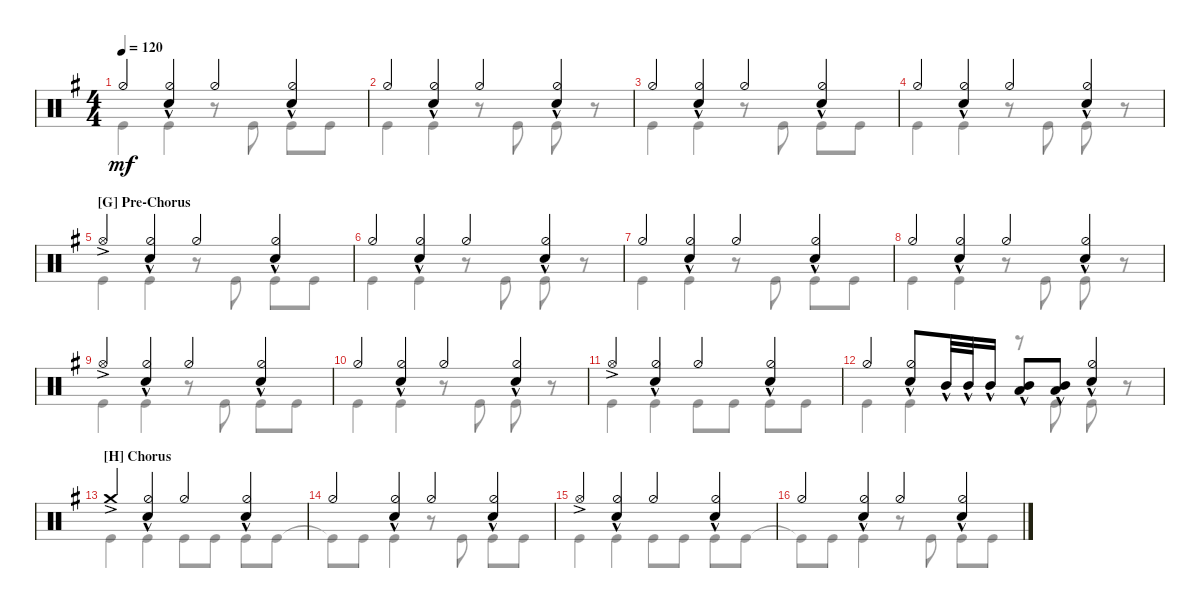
\defaultSystemsLayout 4
\bracketExtendMode groupsimilarinstruments
\singleTrackTrackNamePolicy hidden
\multiTrackTrackNamePolicy hidden
\firstSystemTrackNameOrientation horizontal
\otherSystemsTrackNameOrientation horizontal
\track ("Maksim Udalov" "Drums") {instrument percussion}
\staff {score}
\articulation defaults
\voice
\ts (4 4)
\tempo 120
\clef neutral
\scale
1.02648
\ks g "Hi-Hat (half)".4{dy mf}
("Snare (hit) 2"{hac} "Hi-Hat (half)").4 "Hi-Hat (half)".4 ("Snare (hit) 2"{hac} "Hi-Hat (half)").4 |
\scale
0.973518 "Hi-Hat (half)".4 ("Snare (hit) 2"{hac} "Hi-Hat (half)").4 "Hi-Hat (half)".4 ("Snare (hit) 2"{hac} "Hi-Hat (half)").4 |
\scale
1.02648 "Hi-Hat (half)".4 ("Snare (hit) 2"{hac} "Hi-Hat (half)").4 "Hi-Hat (half)".4 ("Snare (hit) 2"{hac} "Hi-Hat (half)").4 |
\scale
0.973518 "Hi-Hat (half)".4 ("Snare (hit) 2"{hac} "Hi-Hat (half)").4 "Hi-Hat (half)".4 ("Snare (hit) 2"{hac} "Hi-Hat (half)").4 |
\section ("G" "Pre-Chorus")
\scale
1.02648 "Hi-Hat (open)"{ac}.4 ("Snare (hit) 2"{hac} "Hi-Hat (half)").4 "Hi-Hat (half)".4 ("Snare (hit) 2"{hac} "Hi-Hat (half)").4 |
\scale
0.973518 "Hi-Hat (half)".4 ("Snare (hit) 2"{hac} "Hi-Hat (half)").4 "Hi-Hat (half)".4 ("Snare (hit) 2"{hac} "Hi-Hat (half)").4 |
\scale
1.02648 "Hi-Hat (half)".4 ("Snare (hit) 2"{hac} "Hi-Hat (half)").4 "Hi-Hat (half)".4 ("Snare (hit) 2"{hac} "Hi-Hat (half)").4 |
\scale
0.973518 "Hi-Hat (half)".4 ("Snare (hit) 2"{hac} "Hi-Hat (half)").4 "Hi-Hat (half)".4 ("Snare (hit) 2"{hac} "Hi-Hat (half)").4 |
\scale
1.02648 "Hi-Hat (open)"{ac}.4 ("Snare (hit) 2"{hac} "Hi-Hat (half)").4 "Hi-Hat (half)".4 ("Snare (hit) 2"{hac} "Hi-Hat (half)").4 |
\scale
0.973518 "Hi-Hat (half)".4 ("Snare (hit) 2"{hac} "Hi-Hat (half)").4 "Hi-Hat (half)".4 ("Snare (hit) 2"{hac} "Hi-Hat (half)").4 |
\scale
1.02648 "Hi-Hat (open)"{ac}.4 ("Snare (hit) 2"{hac} "Hi-Hat (half)").4 "Hi-Hat (half)".4 ("Snare (hit) 2"{hac} "Hi-Hat (half)").4 |
\scale
0.973518 "Hi-Hat (half)".4 ("Hi-Hat (half)" "Snare (hit) 2"{hac}).8 "Mid Tom (hit)"{hac}.32 "Mid Tom (hit)"{hac}.32 "Mid Tom (hit)"{hac}.16 ("Low Tom (hit)"{hac} "Mid Tom (hit)"{hac}).8 ("Low Tom (hit)"{hac} "Mid Tom (hit)"{hac}).8 ("Snare (hit) 2"{hac} "Hi-Hat (half)").4 |
\section ("H" "Chorus")
\scale
1.02648 "Crash medium (hit)"{ac}.4 ("Snare (hit) 2"{hac} "Hi-Hat (half)").4 "Hi-Hat (half)".4 ("Snare (hit) 2"{hac} "Hi-Hat (half)").4 |
\scale
0.973518 "Hi-Hat (half)".4 ("Hi-Hat (half)" "Snare (hit) 2"{hac}).4 "Hi-Hat (half)".4 ("Hi-Hat (half)" "Snare (hit) 2"{hac}).4 |
\scale
1.02648 "Hi-Hat (open)"{ac}.4 ("Snare (hit) 2"{hac} "Hi-Hat (half)").4 "Hi-Hat (half)".4 ("Snare (hit) 2"{hac} "Hi-Hat (half)").4 |
\scale
0.973518 "Hi-Hat (half)".4 ("Hi-Hat (half)" "Snare (hit) 2"{hac}).4 "Hi-Hat (half)".4 ("Hi-Hat (half)" "Snare (hit) 2"{hac}).4
\voice
\clef neutral
\ottava regular
\simile none
\scale
1.02648
\ks g "Kick (hit)".4{dy mf} "Kick (hit)".4
r.8 "Kick (hit)".8 "Kick (hit)".8 "Kick (hit)".8 |
\scale
0.973518 "Kick (hit)".4 "Kick (hit)".4 r.8 "Kick (hit)".8 "Kick (hit)".8 r.8 |
\scale
1.02648 "Kick (hit)".4 "Kick (hit)".4 r.8 "Kick (hit)".8 "Kick (hit)".8 "Kick (hit)".8 |
\scale
0.973518 "Kick (hit)".4 "Kick (hit)".4 r.8 "Kick (hit)".8 "Kick (hit)".8 r.8 |
\scale
1.02648 "Kick (hit)".4 "Kick (hit)".4 r.8 "Kick (hit)".8 "Kick (hit)".8 "Kick (hit)".8 |
\scale
0.973518 "Kick (hit)".4 "Kick (hit)".4 r.8 "Kick (hit)".8 "Kick (hit)".8 r.8 |
\scale
1.02648 "Kick (hit)".4 "Kick (hit)".4 r.8 "Kick (hit)".8 "Kick (hit)".8 "Kick (hit)".8 |
\scale
0.973518 "Kick (hit)".4 "Kick (hit)".4 r.8 "Kick (hit)".8 "Kick (hit)".8 r.8 |
\scale
1.02648 "Kick (hit)".4 "Kick (hit)".4 r.8 "Kick (hit)".8 "Kick (hit)".8 "Kick (hit)".8 |
\scale
0.973518 "Kick (hit)".4 "Kick (hit)".4 r.8 "Kick (hit)".8 "Kick (hit)".8 r.8 |
\scale
1.02648 "Kick (hit)".4 "Kick (hit)".4 "Kick (hit)".8 "Kick (hit)".8 "Kick (hit)".8 "Kick (hit)".8 |
\scale
0.973518 "Kick (hit)".4 "Kick (hit)".4 r.8 "Kick (hit)".8 "Kick (hit)".8 r.8 |
\scale
1.02648 "Kick (hit)".4 "Kick (hit)".4 "Kick (hit)".8 "Kick (hit)".8 "Kick (hit)".8 "Kick (hit)".8 |
\scale
0.973518 "Kick (hit)"{t}.8 "Kick (hit)".8 "Kick (hit)".4 r.8 "Kick (hit)".8 "Kick (hit)".8 "Kick (hit)".8 |
\scale
1.02648 "Kick (hit)".4 "Kick (hit)".4 "Kick (hit)".8 "Kick (hit)".8 "Kick (hit)".8 "Kick (hit)".8 |
\scale
0.973518 "Kick (hit)"{t}.8 "Kick (hit)".8 "Kick (hit)".4 r.8 "Kick (hit)".8 "Kick (hit)".8 "Kick (hit)".8
